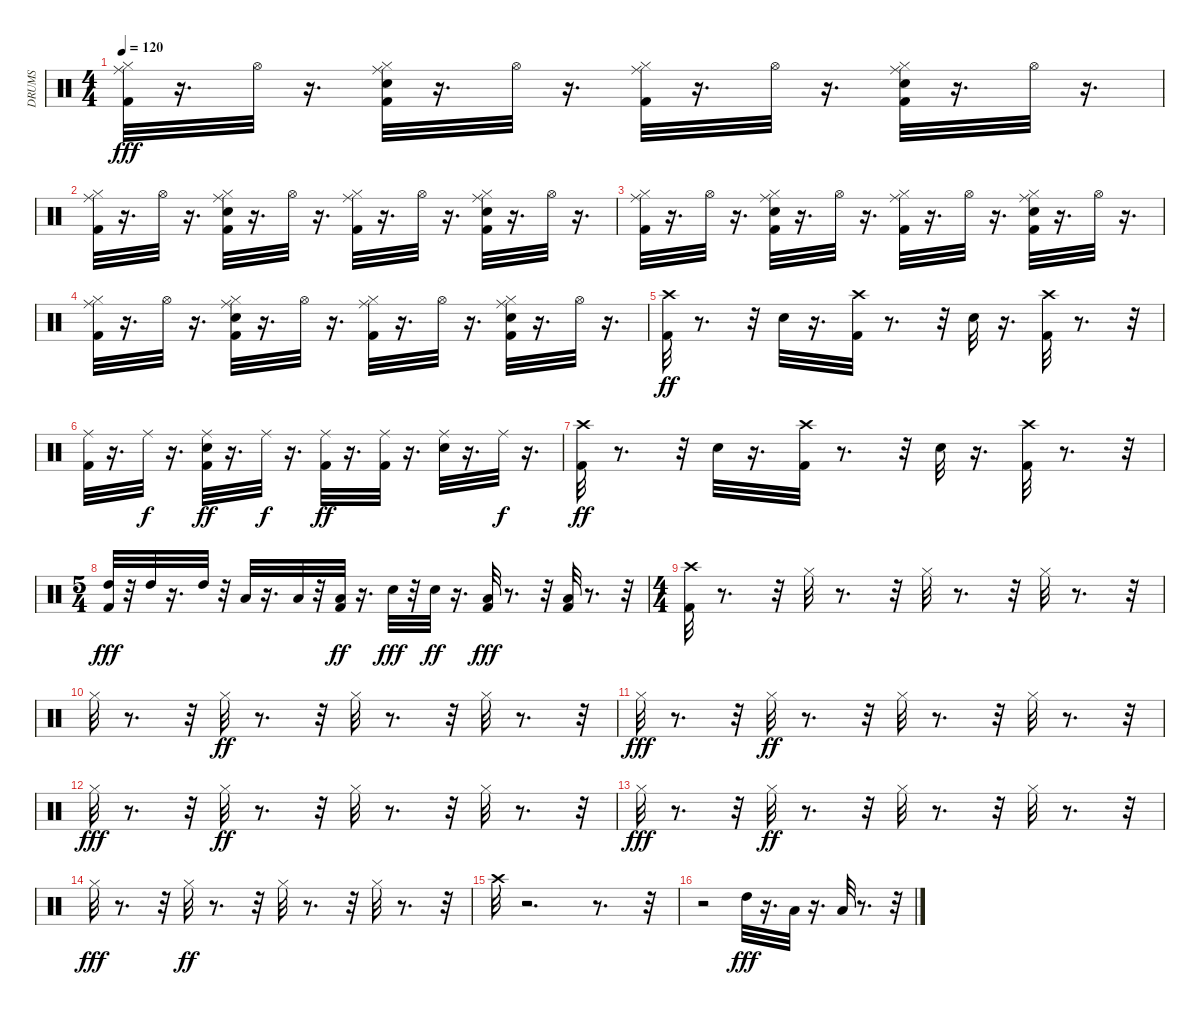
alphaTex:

\track ("DRUMS            " "DRUMS     ") {instrument percussion}
\staff {score}
\articulation defaults
\ts (4 4)
\tempo 120
\clef neutral
\ks c
("Kick (hit) 2" "Ride (middle)" "Hi-Hat (closed)").32{dy fff} r.16{d} "Hi-Hat (open)".32 r.16{d} ("Kick (hit) 2" "Snare (hit) 2" "Ride (middle)" "Hi-Hat (closed)").32 r.16{d} "Hi-Hat (open)".32 r.16{d} ("Kick (hit) 2" "Ride (middle)" "Hi-Hat (closed)").32 r.16{d} "Hi-Hat (open)".32 r.16{d} ("Kick (hit) 2" "Snare (hit) 2" "Ride (middle)" "Hi-Hat (closed)").32 r.16{d} "Hi-Hat (open)".32 r.16{d} |
("Kick (hit) 2" "Ride (middle)" "Hi-Hat (closed)").32 r.16{d} "Hi-Hat (open)".32 r.16{d} ("Kick (hit) 2" "Snare (hit) 2" "Ride (middle)" "Hi-Hat (closed)").32 r.16{d} "Hi-Hat (open)".32 r.16{d} ("Kick (hit) 2" "Ride (middle)" "Hi-Hat (closed)").32 r.16{d} "Hi-Hat (open)".32 r.16{d} ("Kick (hit) 2" "Snare (hit) 2" "Ride (middle)" "Hi-Hat (closed)").32 r.16{d} "Hi-Hat (open)".32 r.16{d} |
("Kick (hit) 2" "Ride (middle)" "Hi-Hat (closed)").32 r.16{d} "Hi-Hat (open)".32 r.16{d} ("Kick (hit) 2" "Snare (hit) 2" "Ride (middle)" "Hi-Hat (closed)").32 r.16{d} "Hi-Hat (open)".32 r.16{d} ("Kick (hit) 2" "Ride (middle)" "Hi-Hat (closed)").32 r.16{d} "Hi-Hat (open)".32 r.16{d} ("Kick (hit) 2" "Snare (hit) 2" "Ride (middle)" "Hi-Hat (closed)").32 r.16{d} "Hi-Hat (open)".32 r.16{d} |
("Kick (hit) 2" "Ride (middle)" "Hi-Hat (closed)").32 r.16{d} "Hi-Hat (open)".32 r.16{d} ("Kick (hit) 2" "Snare (hit) 2" "Ride (middle)" "Hi-Hat (closed)").32 r.16{d} "Hi-Hat (open)".32 r.16{d} ("Kick (hit) 2" "Ride (middle)" "Hi-Hat (closed)").32 r.16{d} "Hi-Hat (open)".32 r.16{d} ("Kick (hit) 2" "Snare (hit) 2" "Ride (middle)" "Hi-Hat (closed)").32 r.16{d} "Hi-Hat (open)".32 r.16{d} |
("Kick (hit) 2" "Crash high (hit)").32{dy ff} r.8{d} r.32 "Snare (hit) 2".32 r.16{d} ("Kick (hit) 2" "Crash high (hit)").32 r.8{d} r.32 "Snare (hit) 2".32 r.16{d} ("Kick (hit) 2" "Crash high (hit)").32 r.8{d} r.32 |
("Kick (hit) 2" "Ride (middle)").32 r.16{d} "Ride (middle)".32{dy f} r.16{d} ("Kick (hit) 2" "Snare (hit) 2" "Ride (middle)").32{dy ff} r.16{d} "Ride (middle)".32{dy f} r.16{d} ("Kick (hit) 2" "Ride (middle)").32{dy ff} r.16{d} ("Kick (hit) 2" "Ride (middle)").32 r.16{d} ("Snare (hit) 2" "Ride (middle)").32 r.16{d} "Ride (middle)".32{dy f} r.16{d} |
("Kick (hit) 2" "Crash high (hit)").32{dy ff} r.8{d} r.32 "Snare (hit) 2".32 r.16{d} ("Kick (hit) 2" "Crash high (hit)").32 r.8{d} r.32 "Snare (hit) 2".32 r.16{d} ("Kick (hit) 2" "Crash high (hit)").32 r.8{d} r.32 |
\ts (5 4)
("Kick (hit) 2" "High Tom (hit)").32{dy fff} r.32 "High Tom (hit)".32 r.16{d} "High Tom (hit)".32 r.32 "Low Tom (hit)".32 r.16{d} "Low Tom (hit)".32 r.32 ("Low Tom (hit)" "Kick (hit) 2").32{dy ff} r.16{d} "Snare (hit) 2".32{dy fff} r.32 "Snare (hit) 2".32{dy ff} r.16{d} ("Low Floor Tom (hit)" "Kick (hit) 2").32{dy fff} r.8{d} r.32 ("Low Floor Tom (hit)" "Kick (hit) 2").32 r.8{d} r.32 |
\ts (4 4)
("Kick (hit) 2" "Crash high (hit)").32 r.8{d} r.32 "Hi-Hat (closed)".32{volume 12} r.8{d} r.32 "Hi-Hat (closed)".32 r.8{d} r.32 "Hi-Hat (closed)".32 r.8{d} r.32 |
"Hi-Hat (closed)".32 r.8{d} r.32 "Hi-Hat (closed)".32{dy ff} r.8{d} r.32 "Hi-Hat (closed)".32 r.8{d} r.32 "Hi-Hat (closed)".32 r.8{d} r.32 |
"Hi-Hat (closed)".32{dy fff} r.8{d} r.32 "Hi-Hat (closed)".32{dy ff} r.8{d} r.32 "Hi-Hat (closed)".32 r.8{d} r.32 "Hi-Hat (closed)".32 r.8{d} r.32 |
"Hi-Hat (closed)".32{dy fff} r.8{d} r.32 "Hi-Hat (closed)".32{dy ff} r.8{d} r.32 "Hi-Hat (closed)".32 r.8{d} r.32 "Hi-Hat (closed)".32 r.8{d} r.32 |
"Hi-Hat (closed)".32{dy fff} r.8{d} r.32 "Hi-Hat (closed)".32{dy ff} r.8{d} r.32 "Hi-Hat (closed)".32 r.8{d} r.32 "Hi-Hat (closed)".32 r.8{d} r.32 |
"Hi-Hat (closed)".32{dy fff} r.8{d} r.32 "Hi-Hat (closed)".32{dy ff} r.8{d} r.32 "Hi-Hat (closed)".32 r.8{d} r.32 "Hi-Hat (closed)".32 r.8{d} r.32 |
"Crash high (hit)".32 r.2{d} r.8{d} r.32 |
r.2 "High Tom (hit)".32{dy fff} r.16{d} "Low Tom (hit)".32 r.16{d} "Low Floor Tom (hit)".32 r.8{d} r.32
